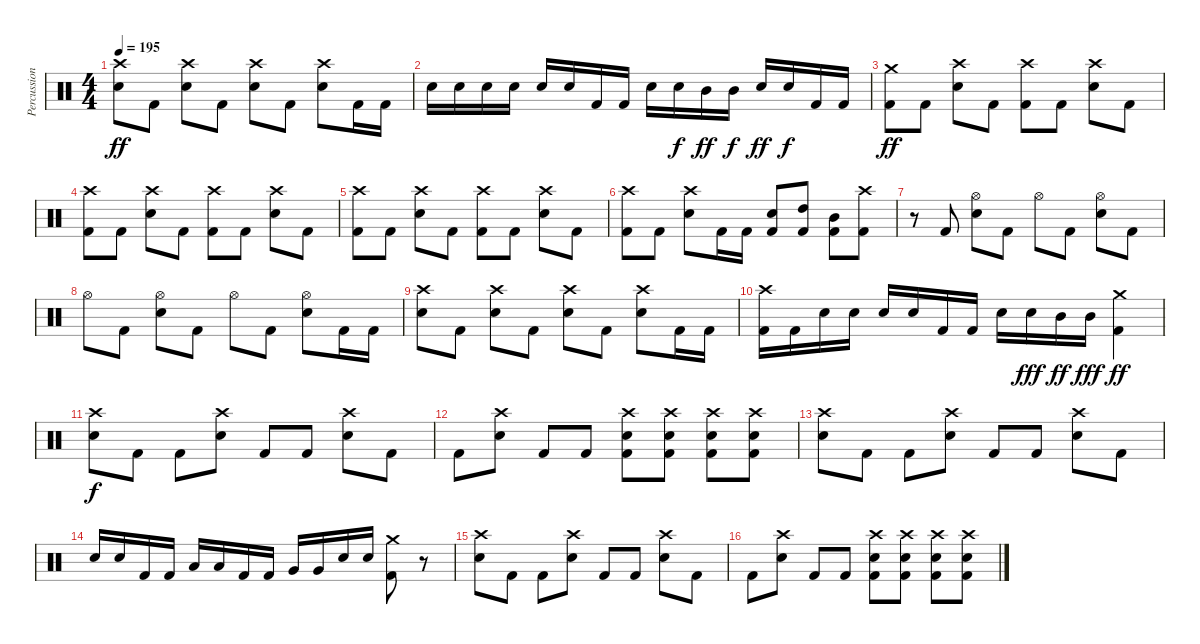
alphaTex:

\track ("Percussion" "Percussion") {instrument percussion}
\staff {score}
\articulation defaults
\ts (4 4)
\tempo 195
\clef neutral
\ks c
("Crash high (hit)" "Electric Snare (hit)").8{dy ff} "Kick (hit) 2".8 ("Crash high (hit)" "Electric Snare (hit)").8 "Kick (hit) 2".8 ("Crash high (hit)" "Electric Snare (hit)").8 "Kick (hit) 2".8 ("Crash high (hit)" "Electric Snare (hit)").8 "Kick (hit) 2".16 "Kick (hit) 2".16 |
"Electric Snare (hit)".16 "Electric Snare (hit)".16 "Electric Snare (hit)".16 "Electric Snare (hit)".16 "Electric Snare (hit)".16 "Electric Snare (hit)".16 "Kick (hit) 2".16 "Kick (hit) 2".16 "Electric Snare (hit)".16 "Electric Snare (hit)".16{dy f} "Mid Tom (hit)".16{dy ff} "Mid Tom (hit)".16{dy f} "Electric Snare (hit)".16{dy ff} "Electric Snare (hit)".16{dy f} "Kick (hit) 2".16 "Kick (hit) 2".16 |
("Crash medium (hit)" "Kick (hit) 2").8{dy ff} "Kick (hit) 2".8 ("Crash high (hit)" "Electric Snare (hit)").8 "Kick (hit) 2".8 ("Crash high (hit)" "Kick (hit) 2").8 "Kick (hit) 2".8 ("Crash high (hit)" "Electric Snare (hit)").8 "Kick (hit) 2".8 |
("Crash high (hit)" "Kick (hit) 2").8 "Kick (hit) 2".8 ("Crash high (hit)" "Electric Snare (hit)").8 "Kick (hit) 2".8 ("Crash high (hit)" "Kick (hit) 2").8 "Kick (hit) 2".8 ("Crash high (hit)" "Electric Snare (hit)").8 "Kick (hit) 2".8 |
("Crash high (hit)" "Kick (hit) 2").8 "Kick (hit) 2".8 ("Crash high (hit)" "Electric Snare (hit)").8 "Kick (hit) 2".8 ("Crash high (hit)" "Kick (hit) 2").8 "Kick (hit) 2".8 ("Crash high (hit)" "Electric Snare (hit)").8 "Kick (hit) 2".8 |
("Crash high (hit)" "Kick (hit) 2").8 "Kick (hit) 2".8 ("Crash high (hit)" "Electric Snare (hit)").8 "Kick (hit) 2".16 "Kick (hit) 2".16 ("Electric Snare (hit)" "Kick (hit) 2").8 ("High Tom (hit)" "Kick (hit) 2").8 ("Mid Tom (hit)" "Kick (hit) 2").8 ("Crash high (hit)" "Kick (hit) 2").8 |
r.8 "Kick (hit) 2".8 ("Hi-Hat (open)" "Electric Snare (hit)").8 "Kick (hit) 2".8 "Hi-Hat (open)".8 "Kick (hit) 2".8 ("Hi-Hat (open)" "Electric Snare (hit)").8 "Kick (hit) 2".8 |
"Hi-Hat (open)".8 "Kick (hit) 2".8 ("Hi-Hat (open)" "Electric Snare (hit)").8 "Kick (hit) 2".8 "Hi-Hat (open)".8 "Kick (hit) 2".8 ("Hi-Hat (open)" "Electric Snare (hit)").8 "Kick (hit) 2".16 "Kick (hit) 2".16 |
("Crash high (hit)" "Electric Snare (hit)").8 "Kick (hit) 2".8 ("Crash high (hit)" "Electric Snare (hit)").8 "Kick (hit) 2".8 ("Crash high (hit)" "Electric Snare (hit)").8 "Kick (hit) 2".8 ("Crash high (hit)" "Electric Snare (hit)").8 "Kick (hit) 2".16 "Kick (hit) 2".16 |
("Crash high (hit)" "Kick (hit) 2").16 "Kick (hit) 2".16 "Electric Snare (hit)".16 "Electric Snare (hit)".16 "Electric Snare (hit)".16 "Electric Snare (hit)".16 "Kick (hit) 2".16 "Kick (hit) 2".16 "Electric Snare (hit)".16 "Electric Snare (hit)".16{dy fff} "Mid Tom (hit)".16{dy ff} "Mid Tom (hit)".16{dy fff} ("Crash medium (hit)" "Kick (hit) 2").4{dy ff} |
("Crash high (hit)" "Electric Snare (hit)").8{dy f} "Kick (hit) 2".8 "Kick (hit) 2".8 ("Crash high (hit)" "Electric Snare (hit)").8 "Kick (hit) 2".8 "Kick (hit) 2".8 ("Crash high (hit)" "Electric Snare (hit)").8 "Kick (hit) 2".8 |
"Kick (hit) 2".8 ("Crash high (hit)" "Electric Snare (hit)").8 "Kick (hit) 2".8 "Kick (hit) 2".8 ("Crash high (hit)" "Electric Snare (hit)" "Kick (hit) 2").8 ("Crash high (hit)" "Electric Snare (hit)" "Kick (hit) 2").8 ("Crash high (hit)" "Electric Snare (hit)" "Kick (hit) 2").8 ("Crash high (hit)" "Electric Snare (hit)" "Kick (hit) 2").8 |
("Crash high (hit)" "Electric Snare (hit)").8 "Kick (hit) 2".8 "Kick (hit) 2".8 ("Crash high (hit)" "Electric Snare (hit)").8 "Kick (hit) 2".8 "Kick (hit) 2".8 ("Crash high (hit)" "Electric Snare (hit)").8 "Kick (hit) 2".8 |
"Electric Snare (hit)".16 "Electric Snare (hit)".16 "Kick (hit) 2".16 "Kick (hit) 2".16 "Low Tom (hit)".16 "Low Tom (hit)".16 "Kick (hit) 2".16 "Kick (hit) 2".16 "Very Low Tom (hit)".16 "Very Low Tom (hit)".16 "Electric Snare (hit)".16 "Electric Snare (hit)".16 ("Crash medium (hit)" "Kick (hit) 2").8 r.8 |
("Crash high (hit)" "Electric Snare (hit)").8 "Kick (hit) 2".8 "Kick (hit) 2".8 ("Crash high (hit)" "Electric Snare (hit)").8 "Kick (hit) 2".8 "Kick (hit) 2".8 ("Crash high (hit)" "Electric Snare (hit)").8 "Kick (hit) 2".8 |
"Kick (hit) 2".8 ("Crash high (hit)" "Electric Snare (hit)").8 "Kick (hit) 2".8 "Kick (hit) 2".8 ("Crash high (hit)" "Electric Snare (hit)" "Kick (hit) 2").8 ("Crash high (hit)" "Electric Snare (hit)" "Kick (hit) 2").8 ("Crash high (hit)" "Electric Snare (hit)" "Kick (hit) 2").8 ("Crash high (hit)" "Electric Snare (hit)" "Kick (hit) 2").8
